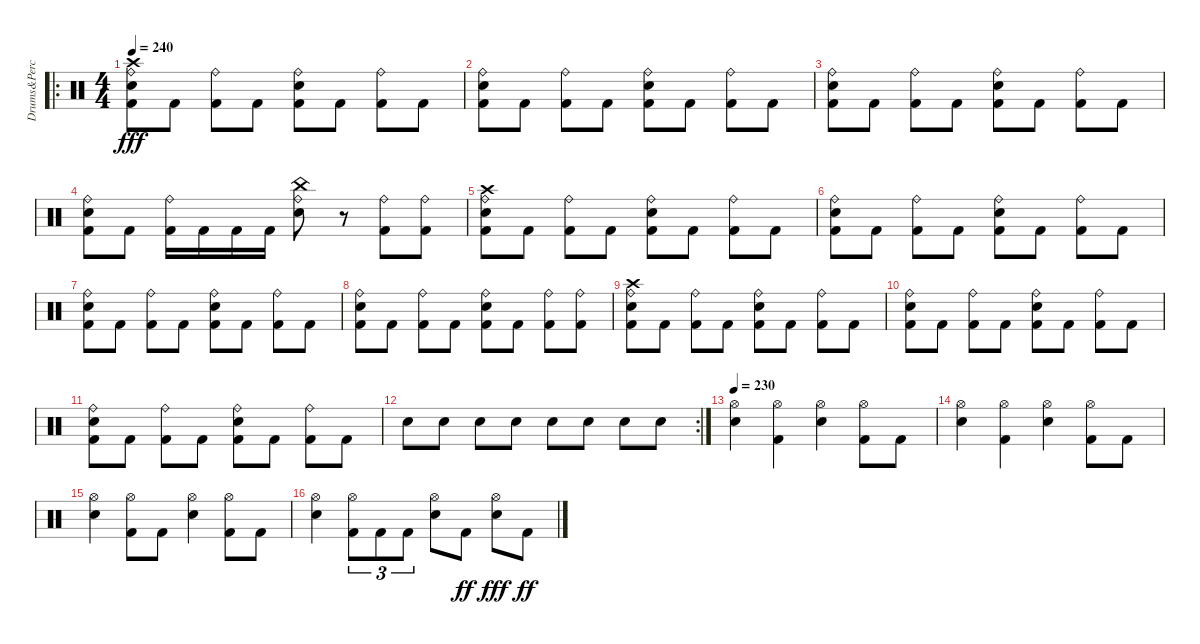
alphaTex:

\track ("Drums&Percusion" "Drums&Perc") {instrument percussion}
\staff {score}
\articulation defaults
\ro
\ts (4 4)
\tempo 240
\clef neutral
\ks c
("Ride (bell)" "Crash high (hit)" "Snare (hit) 2" "Kick (hit) 2").8{dy fff} "Kick (hit) 2".8 ("Ride (bell)" "Kick (hit) 2").8 "Kick (hit) 2".8 ("Ride (bell)" "Snare (hit) 2" "Kick (hit) 2").8 "Kick (hit) 2".8 ("Ride (bell)" "Kick (hit) 2").8 "Kick (hit) 2".8 |
("Ride (bell)" "Snare (hit) 2" "Kick (hit) 2").8 "Kick (hit) 2".8 ("Ride (bell)" "Kick (hit) 2").8 "Kick (hit) 2".8 ("Ride (bell)" "Snare (hit) 2" "Kick (hit) 2").8 "Kick (hit) 2".8 ("Ride (bell)" "Kick (hit) 2").8 "Kick (hit) 2".8 |
("Ride (bell)" "Snare (hit) 2" "Kick (hit) 2").8 "Kick (hit) 2".8 ("Ride (bell)" "Kick (hit) 2").8 "Kick (hit) 2".8 ("Ride (bell)" "Snare (hit) 2" "Kick (hit) 2").8 "Kick (hit) 2".8 ("Ride (bell)" "Kick (hit) 2").8 "Kick (hit) 2".8 |
("Ride (bell)" "Snare (hit) 2" "Kick (hit) 2").8 "Kick (hit) 2".8 ("Ride (bell)" "Kick (hit) 2").16 "Kick (hit) 2".16 "Kick (hit) 2".16 "Kick (hit) 2".16 ("Ride (bell)" "China (hit)" "Snare (hit) 2").8 r.8 ("Ride (bell)" "Kick (hit) 2").8 ("Ride (bell)" "Kick (hit) 2").8 |
("Ride (bell)" "Crash high (hit)" "Snare (hit) 2" "Kick (hit) 2").8 "Kick (hit) 2".8 ("Ride (bell)" "Kick (hit) 2").8 "Kick (hit) 2".8 ("Ride (bell)" "Snare (hit) 2" "Kick (hit) 2").8 "Kick (hit) 2".8 ("Ride (bell)" "Kick (hit) 2").8 "Kick (hit) 2".8 |
("Ride (bell)" "Snare (hit) 2" "Kick (hit) 2").8 "Kick (hit) 2".8 ("Ride (bell)" "Kick (hit) 2").8 "Kick (hit) 2".8 ("Ride (bell)" "Snare (hit) 2" "Kick (hit) 2").8 "Kick (hit) 2".8 ("Ride (bell)" "Kick (hit) 2").8 "Kick (hit) 2".8 |
("Ride (bell)" "Snare (hit) 2" "Kick (hit) 2").8 "Kick (hit) 2".8 ("Ride (bell)" "Kick (hit) 2").8 "Kick (hit) 2".8 ("Ride (bell)" "Snare (hit) 2" "Kick (hit) 2").8 "Kick (hit) 2".8 ("Ride (bell)" "Kick (hit) 2").8 "Kick (hit) 2".8 |
("Ride (bell)" "Snare (hit) 2" "Kick (hit) 2").8 "Kick (hit) 2".8 ("Ride (bell)" "Kick (hit) 2").8 "Kick (hit) 2".8 ("Ride (bell)" "Snare (hit) 2" "Kick (hit) 2").8 "Kick (hit) 2".8 ("Ride (bell)" "Kick (hit) 2").8 ("Ride (bell)" "Kick (hit) 2").8 |
("Ride (bell)" "Crash high (hit)" "Snare (hit) 2" "Kick (hit) 2").8 "Kick (hit) 2".8 ("Ride (bell)" "Kick (hit) 2").8 "Kick (hit) 2".8 ("Ride (bell)" "Snare (hit) 2" "Kick (hit) 2").8 "Kick (hit) 2".8 ("Ride (bell)" "Kick (hit) 2").8 "Kick (hit) 2".8 |
("Ride (bell)" "Snare (hit) 2" "Kick (hit) 2").8 "Kick (hit) 2".8 ("Ride (bell)" "Kick (hit) 2").8 "Kick (hit) 2".8 ("Ride (bell)" "Snare (hit) 2" "Kick (hit) 2").8 "Kick (hit) 2".8 ("Ride (bell)" "Kick (hit) 2").8 "Kick (hit) 2".8 |
("Ride (bell)" "Snare (hit) 2" "Kick (hit) 2").8 "Kick (hit) 2".8 ("Ride (bell)" "Kick (hit) 2").8 "Kick (hit) 2".8 ("Ride (bell)" "Snare (hit) 2" "Kick (hit) 2").8 "Kick (hit) 2".8 ("Ride (bell)" "Kick (hit) 2").8 "Kick (hit) 2".8 |
\rc 2 "Snare (hit) 2".8 "Snare (hit) 2".8 "Snare (hit) 2".8 "Snare (hit) 2".8 "Snare (hit) 2".8 "Snare (hit) 2".8 "Snare (hit) 2".8 "Snare (hit) 2".8
|
\tempo 230
("Hi-Hat (open)" "Snare (hit) 2").4 ("Hi-Hat (open)" "Kick (hit) 2").4 ("Hi-Hat (open)" "Snare (hit) 2").4 ("Hi-Hat (open)" "Kick (hit) 2").8 "Kick (hit) 2".8 |
("Hi-Hat (open)" "Snare (hit) 2").4 ("Hi-Hat (open)" "Kick (hit) 2").4 ("Hi-Hat (open)" "Snare (hit) 2").4 ("Hi-Hat (open)" "Kick (hit) 2").8 "Kick (hit) 2".8 |
("Hi-Hat (open)" "Snare (hit) 2").4 ("Hi-Hat (open)" "Kick (hit) 2").8 "Kick (hit) 2".8 ("Hi-Hat (open)" "Snare (hit) 2").4 ("Hi-Hat (open)" "Kick (hit) 2").8 "Kick (hit) 2".8 |
("Hi-Hat (open)" "Snare (hit) 2").4 ("Hi-Hat (open)" "Kick (hit) 2").8{tu (3 2)} "Kick (hit) 2".8{tu (3 2)} "Kick (hit) 2".8{tu (3 2)} ("Hi-Hat (open)" "Snare (hit) 2").8 "Kick (hit) 2".8{dy ff} ("Hi-Hat (open)" "Snare (hit) 2").8{dy fff} "Kick (hit) 2".8{dy ff}
